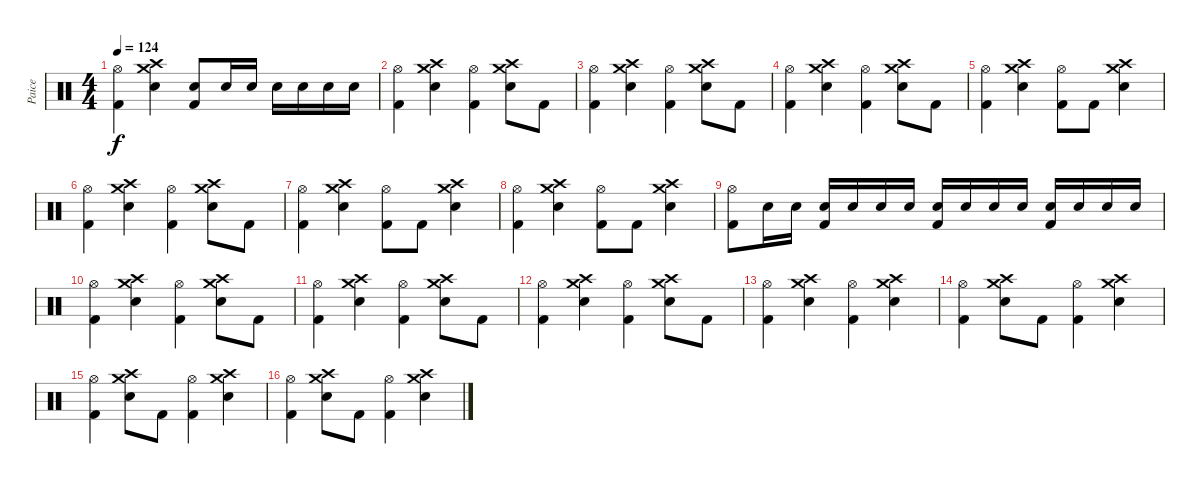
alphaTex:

\track ("Paice" "Paice") {instrument percussion}
\staff {score}
\articulation defaults
\ts (4 4)
\tempo 124
\clef neutral
\ks c
("Hi-Hat (open)" "Kick (hit) 2").4{dy f} ("Crash high (hit)" "Crash medium (hit)" "Electric Snare (hit)").4 ("Electric Snare (hit)" "Kick (hit) 2").8 "Electric Snare (hit)".16 "Electric Snare (hit)".16 "Electric Snare (hit)".16 "Electric Snare (hit)".16 "Electric Snare (hit)".16 "Electric Snare (hit)".16 |
("Hi-Hat (open)" "Kick (hit) 2").4 ("Crash high (hit)" "Crash medium (hit)" "Electric Snare (hit)").4 ("Hi-Hat (open)" "Kick (hit) 2").4 ("Crash high (hit)" "Crash medium (hit)" "Electric Snare (hit)").8 "Kick (hit) 2".8 |
("Hi-Hat (open)" "Kick (hit) 2").4 ("Crash high (hit)" "Crash medium (hit)" "Electric Snare (hit)").4 ("Hi-Hat (open)" "Kick (hit) 2").4 ("Crash high (hit)" "Crash medium (hit)" "Electric Snare (hit)").8 "Kick (hit) 2".8 |
("Hi-Hat (open)" "Kick (hit) 2").4 ("Crash high (hit)" "Crash medium (hit)" "Electric Snare (hit)").4 ("Hi-Hat (open)" "Kick (hit) 2").4 ("Crash high (hit)" "Crash medium (hit)" "Electric Snare (hit)").8 "Kick (hit) 2".8 |
("Hi-Hat (open)" "Kick (hit) 2").4 ("Crash high (hit)" "Crash medium (hit)" "Electric Snare (hit)").4 ("Hi-Hat (open)" "Kick (hit) 2").8 "Kick (hit) 2".8 ("Crash high (hit)" "Crash medium (hit)" "Electric Snare (hit)").4 |
("Hi-Hat (open)" "Kick (hit) 2").4 ("Crash high (hit)" "Crash medium (hit)" "Electric Snare (hit)").4 ("Hi-Hat (open)" "Kick (hit) 2").4 ("Crash high (hit)" "Crash medium (hit)" "Electric Snare (hit)").8 "Kick (hit) 2".8 |
("Hi-Hat (open)" "Kick (hit) 2").4 ("Crash high (hit)" "Crash medium (hit)" "Electric Snare (hit)").4 ("Hi-Hat (open)" "Kick (hit) 2").8 "Kick (hit) 2".8 ("Crash high (hit)" "Crash medium (hit)" "Electric Snare (hit)").4 |
("Hi-Hat (open)" "Kick (hit) 2").4 ("Crash high (hit)" "Crash medium (hit)" "Electric Snare (hit)").4 ("Hi-Hat (open)" "Kick (hit) 2").8 "Kick (hit) 2".8 ("Crash high (hit)" "Crash medium (hit)" "Electric Snare (hit)").4 |
("Hi-Hat (open)" "Kick (hit) 2").8 "Electric Snare (hit)".16 "Electric Snare (hit)".16 ("Electric Snare (hit)" "Kick (hit) 2").16 "Electric Snare (hit)".16 "Electric Snare (hit)".16 "Electric Snare (hit)".16 ("Electric Snare (hit)" "Kick (hit) 2").16 "Electric Snare (hit)".16 "Electric Snare (hit)".16 "Electric Snare (hit)".16 ("Electric Snare (hit)" "Kick (hit) 2").16 "Electric Snare (hit)".16 "Electric Snare (hit)".16 "Electric Snare (hit)".16 |
("Hi-Hat (open)" "Kick (hit) 2").4 ("Crash high (hit)" "Crash medium (hit)" "Electric Snare (hit)").4 ("Hi-Hat (open)" "Kick (hit) 2").4 ("Crash high (hit)" "Crash medium (hit)" "Electric Snare (hit)").8 "Kick (hit) 2".8 |
("Hi-Hat (open)" "Kick (hit) 2").4 ("Crash high (hit)" "Crash medium (hit)" "Electric Snare (hit)").4 ("Hi-Hat (open)" "Kick (hit) 2").4 ("Crash high (hit)" "Crash medium (hit)" "Electric Snare (hit)").8 "Kick (hit) 2".8 |
("Hi-Hat (open)" "Kick (hit) 2").4 ("Crash high (hit)" "Crash medium (hit)" "Electric Snare (hit)").4 ("Hi-Hat (open)" "Kick (hit) 2").4 ("Crash high (hit)" "Crash medium (hit)" "Electric Snare (hit)").8 "Kick (hit) 2".8 |
("Hi-Hat (open)" "Kick (hit) 2").4 ("Crash high (hit)" "Crash medium (hit)" "Electric Snare (hit)").4 ("Hi-Hat (open)" "Kick (hit) 2").4 ("Crash high (hit)" "Crash medium (hit)" "Electric Snare (hit)").4 |
("Hi-Hat (open)" "Kick (hit) 2").4 ("Crash high (hit)" "Crash medium (hit)" "Electric Snare (hit)").8 "Kick (hit) 2".8 ("Hi-Hat (open)" "Kick (hit) 2").4 ("Crash high (hit)" "Crash medium (hit)" "Electric Snare (hit)").4 |
("Hi-Hat (open)" "Kick (hit) 2").4 ("Crash high (hit)" "Crash medium (hit)" "Electric Snare (hit)").8 "Kick (hit) 2".8 ("Hi-Hat (open)" "Kick (hit) 2").4 ("Crash high (hit)" "Crash medium (hit)" "Electric Snare (hit)").4 |
("Hi-Hat (open)" "Kick (hit) 2").4 ("Crash high (hit)" "Crash medium (hit)" "Electric Snare (hit)").8 "Kick (hit) 2".8 ("Hi-Hat (open)" "Kick (hit) 2").4 ("Crash high (hit)" "Crash medium (hit)" "Electric Snare (hit)").4
